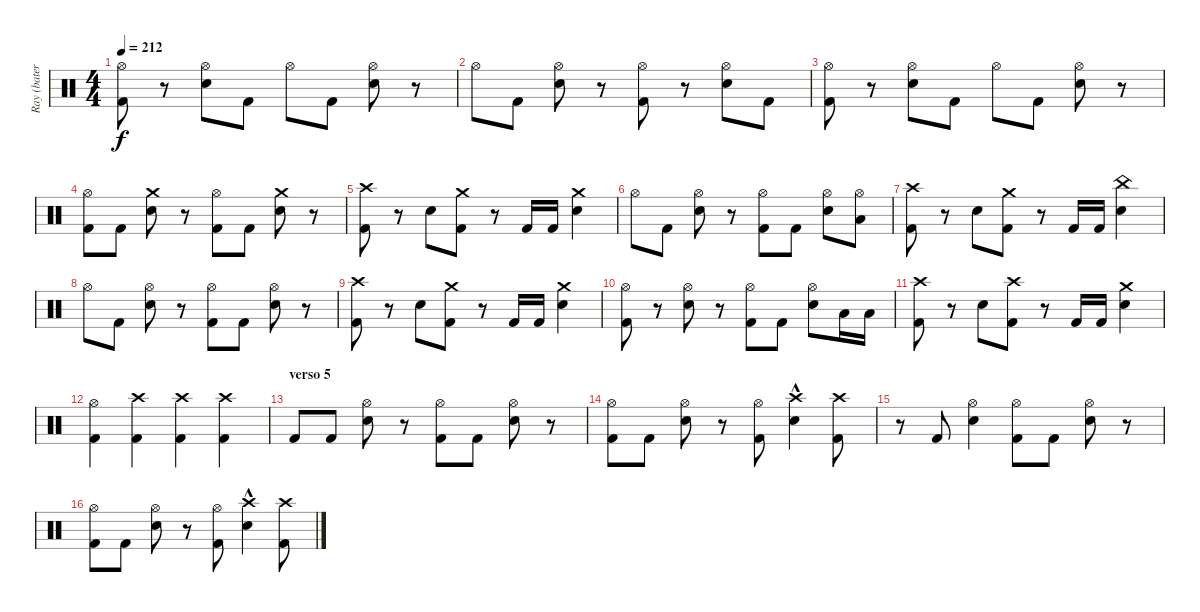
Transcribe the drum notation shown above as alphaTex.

\track ("Ray (batería)" "Ray (bater") {instrument percussion}
\staff {score}
\articulation defaults
\ts (4 4)
\tempo 212
\clef neutral
\ks c
("Hi-Hat (open)" "Kick (hit) 2").8{dy f} r.8 ("Hi-Hat (open)" "Snare (hit) 2").8 "Kick (hit) 2".8 "Hi-Hat (open)".8 "Kick (hit) 2".8 ("Hi-Hat (open)" "Snare (hit) 2").8 r.8 |
"Hi-Hat (open)".8 "Kick (hit) 2".8 ("Hi-Hat (open)" "Snare (hit) 2").8 r.8 ("Hi-Hat (open)" "Kick (hit) 2").8 r.8 ("Hi-Hat (open)" "Snare (hit) 2").8 "Kick (hit) 2".8 |
("Hi-Hat (open)" "Kick (hit) 2").8 r.8 ("Hi-Hat (open)" "Snare (hit) 2").8 "Kick (hit) 2".8 "Hi-Hat (open)".8 "Kick (hit) 2".8 ("Hi-Hat (open)" "Snare (hit) 2").8 r.8 |
("Hi-Hat (open)" "Kick (hit) 2").8 "Kick (hit) 2".8 ("Crash medium (hit)" "Snare (hit) 2").8 r.8 ("Hi-Hat (open)" "Kick (hit) 2").8 "Kick (hit) 2".8 ("Crash medium (hit)" "Snare (hit) 2").8 r.8 |
("Crash high (hit)" "Kick (hit) 2").8 r.8 "Snare (hit) 2".8 ("Crash medium (hit)" "Kick (hit) 2").8 r.8 "Kick (hit) 2".16 "Kick (hit) 2".16 ("Crash medium (hit)" "Snare (hit) 2").4 |
"Hi-Hat (open)".8 "Kick (hit) 2".8 ("Hi-Hat (open)" "Snare (hit) 2").8 r.8 ("Hi-Hat (open)" "Kick (hit) 2").8 "Kick (hit) 2".8 ("Hi-Hat (open)" "Snare (hit) 2").8 ("Hi-Hat (open)" "Low Tom (hit)").8 |
("Crash high (hit)" "Kick (hit) 2").8 r.8 "Snare (hit) 2".8 ("Crash medium (hit)" "Kick (hit) 2").8 r.8 "Kick (hit) 2".16 "Kick (hit) 2".16 ("China (hit)" "Snare (hit) 2").4 |
"Hi-Hat (open)".8 "Kick (hit) 2".8 ("Hi-Hat (open)" "Snare (hit) 2").8 r.8 ("Hi-Hat (open)" "Kick (hit) 2").8 "Kick (hit) 2".8 ("Hi-Hat (open)" "Snare (hit) 2").8 r.8 |
("Crash high (hit)" "Kick (hit) 2").8 r.8 "Snare (hit) 2".8 ("Crash medium (hit)" "Kick (hit) 2").8 r.8 "Kick (hit) 2".16 "Kick (hit) 2".16 ("Crash medium (hit)" "Snare (hit) 2").4 |
("Hi-Hat (open)" "Kick (hit) 2").8 r.8 ("Hi-Hat (open)" "Snare (hit) 2").8 r.8 ("Hi-Hat (open)" "Kick (hit) 2").8 "Kick (hit) 2".8 ("Hi-Hat (open)" "Snare (hit) 2").8 "Low Tom (hit)".16 "Low Tom (hit)".16 |
("Crash high (hit)" "Kick (hit) 2").8 r.8 "Snare (hit) 2".8 ("Crash high (hit)" "Kick (hit) 2").8 r.8 "Kick (hit) 2".16 "Kick (hit) 2".16 ("Crash medium (hit)" "Snare (hit) 2").4 |
("Hi-Hat (open)" "Kick (hit) 2").4 ("Crash high (hit)" "Kick (hit) 2").4 ("Crash high (hit)" "Kick (hit) 2").4 ("Crash high (hit)" "Kick (hit) 2").4 |
\section ("" "verso 5")
"Kick (hit) 2".8 "Kick (hit) 2".8 ("Hi-Hat (open)" "Snare (hit) 2").8 r.8 ("Hi-Hat (open)" "Kick (hit) 2").8 "Kick (hit) 2".8 ("Hi-Hat (open)" "Snare (hit) 2").8 r.8 |
("Hi-Hat (open)" "Kick (hit) 2").8 "Kick (hit) 2".8 ("Hi-Hat (open)" "Snare (hit) 2").8 r.8 ("Hi-Hat (open)" "Kick (hit) 2").8 ("Crash high (hit)" "Snare (hit) 2"{hac}).4 ("Crash high (hit)" "Kick (hit) 2").8 |
r.8 "Kick (hit) 2".8 ("Hi-Hat (open)" "Snare (hit) 2").4 ("Hi-Hat (open)" "Kick (hit) 2").8 "Kick (hit) 2".8 ("Hi-Hat (open)" "Snare (hit) 2").8 r.8 |
("Hi-Hat (open)" "Kick (hit) 2").8 "Kick (hit) 2".8 ("Hi-Hat (open)" "Snare (hit) 2").8 r.8 ("Hi-Hat (open)" "Kick (hit) 2").8 ("Crash high (hit)" "Snare (hit) 2"{hac}).4 ("Crash high (hit)" "Kick (hit) 2").8
